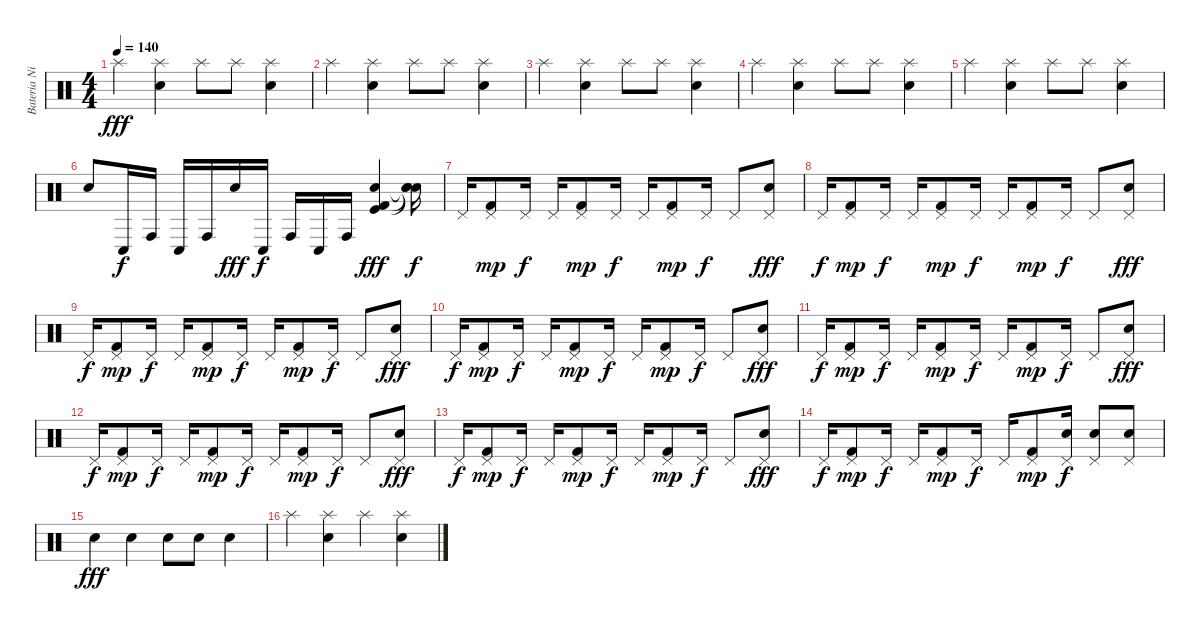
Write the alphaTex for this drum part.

\track ("Bateria Nicolas Cabrera" "Bateria Ni") {instrument percussion}
\staff {score}
\articulation defaults
\ts (4 4)
\tempo 140
\clef neutral
\ks c "Splash (hit)".4{dy fff}
("Splash (hit)" "Snare (hit) 2").4 "Splash (hit)".8 "Splash (hit)".8 ("Splash (hit)" "Snare (hit) 2").4 |
"Splash (hit)".4 ("Splash (hit)" "Snare (hit) 2").4 "Splash (hit)".8 "Splash (hit)".8 ("Splash (hit)" "Snare (hit) 2").4 |
"Splash (hit)".4 ("Splash (hit)" "Snare (hit) 2").4 "Splash (hit)".8 "Splash (hit)".8 ("Splash (hit)" "Snare (hit) 2").4 |
"Splash (hit)".4 ("Splash (hit)" "Snare (hit) 2").4 "Splash (hit)".8 "Splash (hit)".8 ("Splash (hit)" "Snare (hit) 2").4 |
"Splash (hit)".4 ("Splash (hit)" "Snare (hit) 2").4 "Splash (hit)".8 "Splash (hit)".8 ("Splash (hit)" "Snare (hit) 2").4 |
"Snare (hit) 2".8 "Conga low (hit)".16{dy f} "Conga high (hit)".16 "Conga low (hit)".16 "Conga high (hit)".16 "Snare (hit) 2".16{dy fff} "Conga low (hit)".16{dy f} "Conga high (hit)".16 "Conga low (hit)".16 "Conga high (hit)".16 ("Snare (hit) 2" "Kick (hit) 2" "Kick (hit)").4{dy fff} ("Snare (hit)"{t} "Snare (hit)"{t} "Snare (hit)"{t}).16{dy f} |
"Pedal Hi-Hat (hit)".16 ("Pedal Hi-Hat (hit)" "Kick (hit) 2").8{dy mp} "Pedal Hi-Hat (hit)".16{dy f} "Pedal Hi-Hat (hit)".16 ("Pedal Hi-Hat (hit)" "Kick (hit) 2").8{dy mp} "Pedal Hi-Hat (hit)".16{dy f} "Pedal Hi-Hat (hit)".16 ("Pedal Hi-Hat (hit)" "Kick (hit) 2").8{dy mp} "Pedal Hi-Hat (hit)".16{dy f} "Pedal Hi-Hat (hit)".8 ("Pedal Hi-Hat (hit)" "Electric Snare (hit)").8{dy fff} |
"Pedal Hi-Hat (hit)".16{dy f} ("Pedal Hi-Hat (hit)" "Kick (hit) 2").8{dy mp} "Pedal Hi-Hat (hit)".16{dy f} "Pedal Hi-Hat (hit)".16 ("Pedal Hi-Hat (hit)" "Kick (hit) 2").8{dy mp} "Pedal Hi-Hat (hit)".16{dy f} "Pedal Hi-Hat (hit)".16 ("Pedal Hi-Hat (hit)" "Kick (hit) 2").8{dy mp} "Pedal Hi-Hat (hit)".16{dy f} "Pedal Hi-Hat (hit)".8 ("Pedal Hi-Hat (hit)" "Electric Snare (hit)").8{dy fff} |
"Pedal Hi-Hat (hit)".16{dy f} ("Pedal Hi-Hat (hit)" "Kick (hit) 2").8{dy mp} "Pedal Hi-Hat (hit)".16{dy f} "Pedal Hi-Hat (hit)".16 ("Pedal Hi-Hat (hit)" "Kick (hit) 2").8{dy mp} "Pedal Hi-Hat (hit)".16{dy f} "Pedal Hi-Hat (hit)".16 ("Pedal Hi-Hat (hit)" "Kick (hit) 2").8{dy mp} "Pedal Hi-Hat (hit)".16{dy f} "Pedal Hi-Hat (hit)".8 ("Pedal Hi-Hat (hit)" "Electric Snare (hit)").8{dy fff} |
"Pedal Hi-Hat (hit)".16{dy f} ("Pedal Hi-Hat (hit)" "Kick (hit) 2").8{dy mp} "Pedal Hi-Hat (hit)".16{dy f} "Pedal Hi-Hat (hit)".16 ("Pedal Hi-Hat (hit)" "Kick (hit) 2").8{dy mp} "Pedal Hi-Hat (hit)".16{dy f} "Pedal Hi-Hat (hit)".16 ("Pedal Hi-Hat (hit)" "Kick (hit) 2").8{dy mp} "Pedal Hi-Hat (hit)".16{dy f} "Pedal Hi-Hat (hit)".8 ("Pedal Hi-Hat (hit)" "Electric Snare (hit)").8{dy fff} |
"Pedal Hi-Hat (hit)".16{dy f} ("Pedal Hi-Hat (hit)" "Kick (hit) 2").8{dy mp} "Pedal Hi-Hat (hit)".16{dy f} "Pedal Hi-Hat (hit)".16 ("Pedal Hi-Hat (hit)" "Kick (hit) 2").8{dy mp} "Pedal Hi-Hat (hit)".16{dy f} "Pedal Hi-Hat (hit)".16 ("Pedal Hi-Hat (hit)" "Kick (hit) 2").8{dy mp} "Pedal Hi-Hat (hit)".16{dy f} "Pedal Hi-Hat (hit)".8 ("Pedal Hi-Hat (hit)" "Electric Snare (hit)").8{dy fff} |
"Pedal Hi-Hat (hit)".16{dy f} ("Pedal Hi-Hat (hit)" "Kick (hit) 2").8{dy mp} "Pedal Hi-Hat (hit)".16{dy f} "Pedal Hi-Hat (hit)".16 ("Pedal Hi-Hat (hit)" "Kick (hit) 2").8{dy mp} "Pedal Hi-Hat (hit)".16{dy f} "Pedal Hi-Hat (hit)".16 ("Pedal Hi-Hat (hit)" "Kick (hit) 2").8{dy mp} "Pedal Hi-Hat (hit)".16{dy f} "Pedal Hi-Hat (hit)".8 ("Pedal Hi-Hat (hit)" "Electric Snare (hit)").8{dy fff} |
"Pedal Hi-Hat (hit)".16{dy f} ("Pedal Hi-Hat (hit)" "Kick (hit) 2").8{dy mp} "Pedal Hi-Hat (hit)".16{dy f} "Pedal Hi-Hat (hit)".16 ("Pedal Hi-Hat (hit)" "Kick (hit) 2").8{dy mp} "Pedal Hi-Hat (hit)".16{dy f} "Pedal Hi-Hat (hit)".16 ("Pedal Hi-Hat (hit)" "Kick (hit) 2").8{dy mp} "Pedal Hi-Hat (hit)".16{dy f} "Pedal Hi-Hat (hit)".8 ("Pedal Hi-Hat (hit)" "Electric Snare (hit)").8{dy fff} |
"Pedal Hi-Hat (hit)".16{dy f} ("Pedal Hi-Hat (hit)" "Kick (hit) 2").8{dy mp} "Pedal Hi-Hat (hit)".16{dy f} "Pedal Hi-Hat (hit)".16 ("Pedal Hi-Hat (hit)" "Kick (hit) 2").8{dy mp} "Pedal Hi-Hat (hit)".16{dy f} "Pedal Hi-Hat (hit)".16 ("Pedal Hi-Hat (hit)" "Kick (hit) 2").8{dy mp} ("Pedal Hi-Hat (hit)" "Snare (hit) 2").16{dy f} ("Pedal Hi-Hat (hit)" "Snare (hit) 2").8 ("Pedal Hi-Hat (hit)" "Snare (hit) 2").8 |
"Electric Snare (hit)".4{dy fff} "Electric Snare (hit)".4 "Electric Snare (hit)".8 "Electric Snare (hit)".8 "Electric Snare (hit)".4 |
"Splash (hit)".4 ("Splash (hit)" "Electric Snare (hit)").4 "Splash (hit)".4 ("Splash (hit)" "Electric Snare (hit)").4
